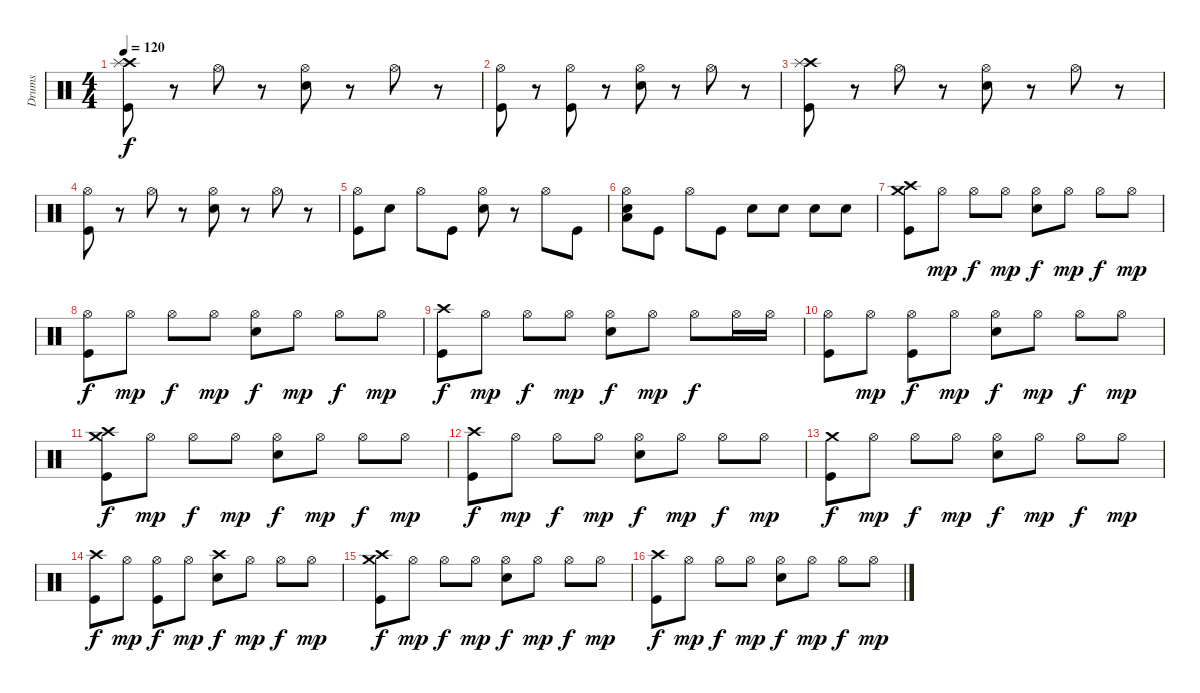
\track ("Drums" "Drums") {instrument percussion}
\staff {score}
\articulation defaults
\ts (4 4)
\tempo 120
\clef neutral
\ks c
("Crash high (hit)" "Splash (hit)" "Kick (hit)").8{dy f} r.8 "Hi-Hat (open)".8 r.8 ("Snare (hit) 2" "Hi-Hat (open)").8 r.8 "Hi-Hat (open)".8 r.8 |
("Kick (hit)" "Hi-Hat (open)").8 r.8 ("Kick (hit)" "Hi-Hat (open)").8 r.8 ("Snare (hit) 2" "Hi-Hat (open)").8 r.8 "Hi-Hat (open)".8 r.8 |
("Kick (hit)" "Crash high (hit)" "Splash (hit)").8 r.8 "Hi-Hat (open)".8 r.8 ("Snare (hit) 2" "Hi-Hat (open)").8 r.8 "Hi-Hat (open)".8 r.8 |
("Kick (hit)" "Hi-Hat (open)").8 r.8 "Hi-Hat (open)".8 r.8 ("Snare (hit) 2" "Hi-Hat (open)").8 r.8 "Hi-Hat (open)".8 r.8 |
("Kick (hit)" "Hi-Hat (open)").8 "Snare (hit) 2".8 "Hi-Hat (open)".8 "Kick (hit)".8 ("Snare (hit) 2" "Hi-Hat (open)").8 r.8 "Hi-Hat (open)".8 "Kick (hit)".8 |
("Hi-Hat (open)" "Snare (hit) 2" "Low Tom (hit)").8 "Kick (hit)".8 "Hi-Hat (open)".8 "Kick (hit)".8 "Snare (hit) 2".8 "Snare (hit) 2".8 "Snare (hit) 2".8 "Snare (hit) 2".8 |
("Kick (hit)" "Crash high (hit)" "Crash medium (hit)").8 "Hi-Hat (open)".8{dy mp} "Hi-Hat (open)".8{dy f} "Hi-Hat (open)".8{dy mp} ("Snare (hit) 2" "Hi-Hat (open)").8{dy f} "Hi-Hat (open)".8{dy mp} "Hi-Hat (open)".8{dy f} "Hi-Hat (open)".8{dy mp} |
("Kick (hit)" "Hi-Hat (open)").8{dy f} "Hi-Hat (open)".8{dy mp} "Hi-Hat (open)".8{dy f} "Hi-Hat (open)".8{dy mp} ("Snare (hit) 2" "Hi-Hat (open)").8{dy f} "Hi-Hat (open)".8{dy mp} "Hi-Hat (open)".8{dy f} "Hi-Hat (open)".8{dy mp} |
("Kick (hit)" "Crash high (hit)").8{dy f} "Hi-Hat (open)".8{dy mp} "Hi-Hat (open)".8{dy f} "Hi-Hat (open)".8{dy mp} ("Snare (hit) 2" "Hi-Hat (open)").8{dy f} "Hi-Hat (open)".8{dy mp} "Hi-Hat (open)".8{dy f} "Hi-Hat (open)".16 "Hi-Hat (open)".16 |
("Kick (hit)" "Hi-Hat (open)").8 "Hi-Hat (open)".8{dy mp} ("Hi-Hat (open)" "Kick (hit)").8{dy f} "Hi-Hat (open)".8{dy mp} ("Hi-Hat (open)" "Snare (hit) 2").8{dy f} "Hi-Hat (open)".8{dy mp} "Hi-Hat (open)".8{dy f} "Hi-Hat (open)".8{dy mp} |
("Kick (hit)" "Crash high (hit)" "Crash medium (hit)").8{dy f} "Hi-Hat (open)".8{dy mp} "Hi-Hat (open)".8{dy f} "Hi-Hat (open)".8{dy mp} ("Snare (hit) 2" "Hi-Hat (open)").8{dy f} "Hi-Hat (open)".8{dy mp} "Hi-Hat (open)".8{dy f} "Hi-Hat (open)".8{dy mp} |
("Kick (hit)" "Crash high (hit)").8{dy f} "Hi-Hat (open)".8{dy mp} "Hi-Hat (open)".8{dy f} "Hi-Hat (open)".8{dy mp} ("Snare (hit) 2" "Hi-Hat (open)").8{dy f} "Hi-Hat (open)".8{dy mp} "Hi-Hat (open)".8{dy f} "Hi-Hat (open)".8{dy mp} |
("Kick (hit)" "Crash medium (hit)").8{dy f} "Hi-Hat (open)".8{dy mp} "Hi-Hat (open)".8{dy f} "Hi-Hat (open)".8{dy mp} ("Snare (hit) 2" "Hi-Hat (open)").8{dy f} "Hi-Hat (open)".8{dy mp} "Hi-Hat (open)".8{dy f} "Hi-Hat (open)".8{dy mp} |
("Kick (hit)" "Crash high (hit)").8{dy f} "Hi-Hat (open)".8{dy mp} ("Hi-Hat (open)" "Kick (hit)").8{dy f} "Hi-Hat (open)".8{dy mp} ("Snare (hit) 2" "Crash high (hit)").8{dy f} "Hi-Hat (open)".8{dy mp} "Hi-Hat (open)".8{dy f} "Hi-Hat (open)".8{dy mp} |
("Kick (hit)" "Crash high (hit)" "Crash medium (hit)").8{dy f} "Hi-Hat (open)".8{dy mp} "Hi-Hat (open)".8{dy f} "Hi-Hat (open)".8{dy mp} ("Snare (hit) 2" "Hi-Hat (open)").8{dy f} "Hi-Hat (open)".8{dy mp} "Hi-Hat (open)".8{dy f} "Hi-Hat (open)".8{dy mp} |
("Kick (hit)" "Crash high (hit)").8{dy f} "Hi-Hat (open)".8{dy mp} "Hi-Hat (open)".8{dy f} "Hi-Hat (open)".8{dy mp} ("Snare (hit) 2" "Hi-Hat (open)").8{dy f} "Hi-Hat (open)".8{dy mp} "Hi-Hat (open)".8{dy f} "Hi-Hat (open)".8{dy mp}
